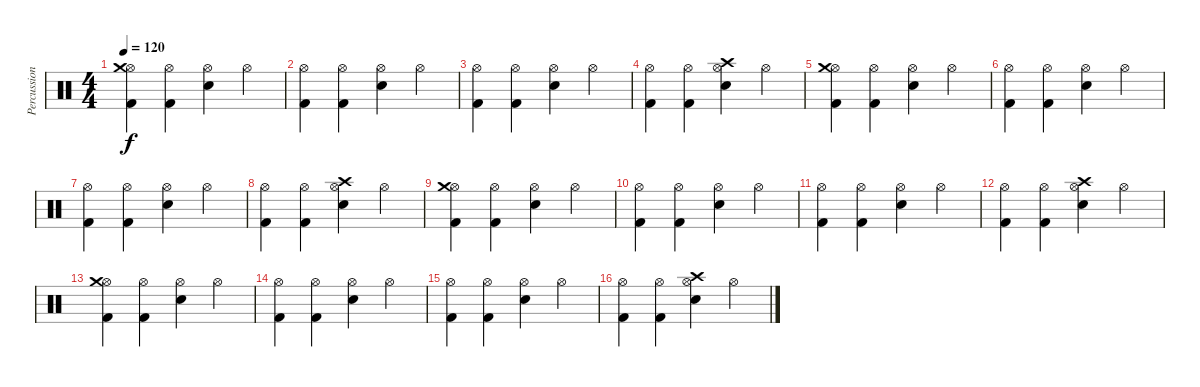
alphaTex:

\track ("Percussioni" "Percussion") {instrument percussion}
\staff {score}
\articulation defaults
\ts (4 4)
\tempo 120
\clef neutral
\ks c
("Hi-Hat (open)" "Crash medium (hit)" "Kick (hit) 2").4{dy f} ("Hi-Hat (open)" "Kick (hit) 2").4 ("Hi-Hat (open)" "Snare (hit) 2").4 "Hi-Hat (open)".4 |
("Hi-Hat (open)" "Kick (hit) 2").4 ("Hi-Hat (open)" "Kick (hit) 2").4 ("Hi-Hat (open)" "Snare (hit) 2").4 "Hi-Hat (open)".4 |
("Hi-Hat (open)" "Kick (hit) 2").4 ("Hi-Hat (open)" "Kick (hit) 2").4 ("Hi-Hat (open)" "Snare (hit) 2").4 "Hi-Hat (open)".4 |
("Hi-Hat (open)" "Kick (hit) 2").4 ("Hi-Hat (open)" "Kick (hit) 2").4 ("Hi-Hat (open)" "Crash high (hit)" "Snare (hit) 2").4 "Hi-Hat (open)".4 |
("Hi-Hat (open)" "Crash medium (hit)" "Kick (hit) 2").4 ("Hi-Hat (open)" "Kick (hit) 2").4 ("Hi-Hat (open)" "Snare (hit) 2").4 "Hi-Hat (open)".4 |
("Hi-Hat (open)" "Kick (hit) 2").4 ("Hi-Hat (open)" "Kick (hit) 2").4 ("Hi-Hat (open)" "Snare (hit) 2").4 "Hi-Hat (open)".4 |
("Hi-Hat (open)" "Kick (hit) 2").4 ("Hi-Hat (open)" "Kick (hit) 2").4 ("Hi-Hat (open)" "Snare (hit) 2").4 "Hi-Hat (open)".4 |
("Hi-Hat (open)" "Kick (hit) 2").4 ("Hi-Hat (open)" "Kick (hit) 2").4 ("Hi-Hat (open)" "Crash high (hit)" "Snare (hit) 2").4 "Hi-Hat (open)".4 |
("Hi-Hat (open)" "Crash medium (hit)" "Kick (hit) 2").4 ("Hi-Hat (open)" "Kick (hit) 2").4 ("Hi-Hat (open)" "Snare (hit) 2").4 "Hi-Hat (open)".4 |
("Hi-Hat (open)" "Kick (hit) 2").4 ("Hi-Hat (open)" "Kick (hit) 2").4 ("Hi-Hat (open)" "Snare (hit) 2").4 "Hi-Hat (open)".4 |
("Hi-Hat (open)" "Kick (hit) 2").4 ("Hi-Hat (open)" "Kick (hit) 2").4 ("Hi-Hat (open)" "Snare (hit) 2").4 "Hi-Hat (open)".4 |
("Hi-Hat (open)" "Kick (hit) 2").4 ("Hi-Hat (open)" "Kick (hit) 2").4 ("Hi-Hat (open)" "Crash high (hit)" "Snare (hit) 2").4 "Hi-Hat (open)".4 |
("Hi-Hat (open)" "Crash medium (hit)" "Kick (hit) 2").4 ("Hi-Hat (open)" "Kick (hit) 2").4 ("Hi-Hat (open)" "Snare (hit) 2").4 "Hi-Hat (open)".4 |
("Hi-Hat (open)" "Kick (hit) 2").4 ("Hi-Hat (open)" "Kick (hit) 2").4 ("Hi-Hat (open)" "Snare (hit) 2").4 "Hi-Hat (open)".4 |
("Hi-Hat (open)" "Kick (hit) 2").4 ("Hi-Hat (open)" "Kick (hit) 2").4 ("Hi-Hat (open)" "Snare (hit) 2").4 "Hi-Hat (open)".4 |
("Hi-Hat (open)" "Kick (hit) 2").4 ("Hi-Hat (open)" "Kick (hit) 2").4 ("Hi-Hat (open)" "Crash high (hit)" "Snare (hit) 2").4 "Hi-Hat (open)".4
